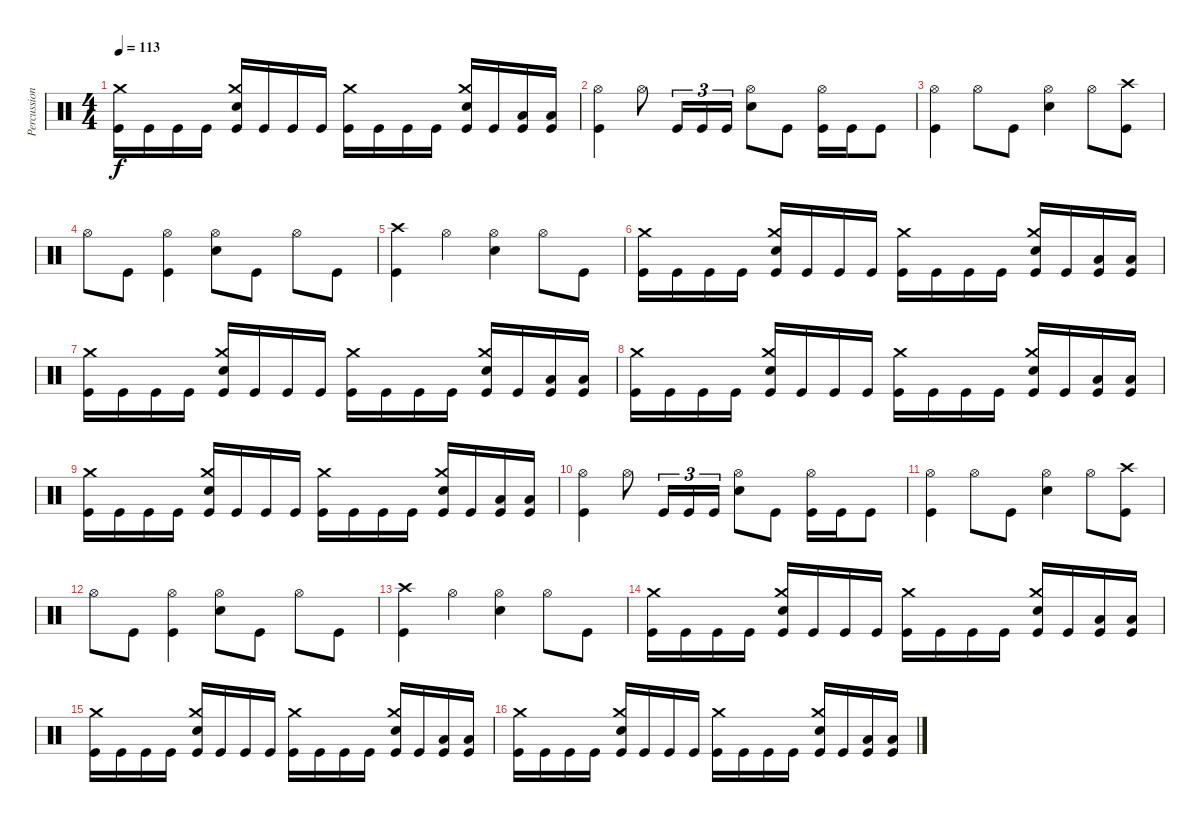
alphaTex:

\track ("Percussion" "Percussion") {instrument percussion}
\staff {score}
\articulation defaults
\ts (4 4)
\tempo 113
\clef neutral
\ks c
("Kick (hit)" "Crash medium (hit)").16{dy f} "Kick (hit)".16 "Kick (hit)".16 "Kick (hit)".16 ("Kick (hit)" "Crash medium (hit)" "Snare (hit) 2").16 "Kick (hit)".16 "Kick (hit)".16 "Kick (hit)".16 ("Kick (hit)" "Crash medium (hit)").16 "Kick (hit)".16 "Kick (hit)".16 "Kick (hit)".16 ("Kick (hit)" "Crash medium (hit)" "Snare (hit) 2").16 "Kick (hit)".16 ("Kick (hit)" "Low Floor Tom (hit)").16 ("Kick (hit)" "Low Floor Tom (hit)").16 |
("Kick (hit)" "Hi-Hat (open)").4 "Hi-Hat (open)".8 "Kick (hit)".16{tu (3 2)} "Kick (hit)".16{tu (3 2)} "Kick (hit)".16{tu (3 2)} ("Hi-Hat (open)" "Snare (hit) 2").8 "Kick (hit)".8 ("Kick (hit)" "Hi-Hat (open)").16 "Kick (hit)".16 "Kick (hit)".8 |
("Kick (hit)" "Hi-Hat (open)").4 "Hi-Hat (open)".8 "Kick (hit)".8 ("Hi-Hat (open)" "Snare (hit) 2").4 "Hi-Hat (open)".8 ("Kick (hit)" "Crash high (hit)").8 |
"Hi-Hat (open)".8 "Kick (hit)".8 ("Kick (hit)" "Hi-Hat (open)").4 ("Hi-Hat (open)" "Snare (hit) 2").8 "Kick (hit)".8 "Hi-Hat (open)".8 "Kick (hit)".8 |
("Kick (hit)" "Crash high (hit)").4 "Hi-Hat (open)".4 ("Hi-Hat (open)" "Snare (hit) 2").4 "Hi-Hat (open)".8 "Kick (hit)".8 |
("Kick (hit)" "Crash medium (hit)").16 "Kick (hit)".16 "Kick (hit)".16 "Kick (hit)".16 ("Kick (hit)" "Crash medium (hit)" "Snare (hit) 2").16 "Kick (hit)".16 "Kick (hit)".16 "Kick (hit)".16 ("Kick (hit)" "Crash medium (hit)").16 "Kick (hit)".16 "Kick (hit)".16 "Kick (hit)".16 ("Kick (hit)" "Crash medium (hit)" "Snare (hit) 2").16 "Kick (hit)".16 ("Kick (hit)" "Low Floor Tom (hit)").16 ("Kick (hit)" "Low Floor Tom (hit)").16 |
("Kick (hit)" "Crash medium (hit)").16 "Kick (hit)".16 "Kick (hit)".16 "Kick (hit)".16 ("Kick (hit)" "Crash medium (hit)" "Snare (hit) 2").16 "Kick (hit)".16 "Kick (hit)".16 "Kick (hit)".16 ("Kick (hit)" "Crash medium (hit)").16 "Kick (hit)".16 "Kick (hit)".16 "Kick (hit)".16 ("Kick (hit)" "Crash medium (hit)" "Snare (hit) 2").16 "Kick (hit)".16 ("Kick (hit)" "Low Floor Tom (hit)").16 ("Kick (hit)" "Low Floor Tom (hit)").16 |
("Kick (hit)" "Crash medium (hit)").16 "Kick (hit)".16 "Kick (hit)".16 "Kick (hit)".16 ("Kick (hit)" "Crash medium (hit)" "Snare (hit) 2").16 "Kick (hit)".16 "Kick (hit)".16 "Kick (hit)".16 ("Kick (hit)" "Crash medium (hit)").16 "Kick (hit)".16 "Kick (hit)".16 "Kick (hit)".16 ("Kick (hit)" "Crash medium (hit)" "Snare (hit) 2").16 "Kick (hit)".16 ("Kick (hit)" "Low Floor Tom (hit)").16 ("Kick (hit)" "Low Floor Tom (hit)").16 |
("Kick (hit)" "Crash medium (hit)").16 "Kick (hit)".16 "Kick (hit)".16 "Kick (hit)".16 ("Kick (hit)" "Crash medium (hit)" "Snare (hit) 2").16 "Kick (hit)".16 "Kick (hit)".16 "Kick (hit)".16 ("Kick (hit)" "Crash medium (hit)").16 "Kick (hit)".16 "Kick (hit)".16 "Kick (hit)".16 ("Kick (hit)" "Crash medium (hit)" "Snare (hit) 2").16 "Kick (hit)".16 ("Kick (hit)" "Low Floor Tom (hit)").16 ("Kick (hit)" "Low Floor Tom (hit)").16 |
("Kick (hit)" "Hi-Hat (open)").4 "Hi-Hat (open)".8 "Kick (hit)".16{tu (3 2)} "Kick (hit)".16{tu (3 2)} "Kick (hit)".16{tu (3 2)} ("Hi-Hat (open)" "Snare (hit) 2").8 "Kick (hit)".8 ("Kick (hit)" "Hi-Hat (open)").16 "Kick (hit)".16 "Kick (hit)".8 |
("Kick (hit)" "Hi-Hat (open)").4 "Hi-Hat (open)".8 "Kick (hit)".8 ("Hi-Hat (open)" "Snare (hit) 2").4 "Hi-Hat (open)".8 ("Kick (hit)" "Crash high (hit)").8 |
"Hi-Hat (open)".8 "Kick (hit)".8 ("Kick (hit)" "Hi-Hat (open)").4 ("Hi-Hat (open)" "Snare (hit) 2").8 "Kick (hit)".8 "Hi-Hat (open)".8 "Kick (hit)".8 |
("Kick (hit)" "Crash high (hit)").4 "Hi-Hat (open)".4 ("Hi-Hat (open)" "Snare (hit) 2").4 "Hi-Hat (open)".8 "Kick (hit)".8 |
("Kick (hit)" "Crash medium (hit)").16 "Kick (hit)".16 "Kick (hit)".16 "Kick (hit)".16 ("Kick (hit)" "Crash medium (hit)" "Snare (hit) 2").16 "Kick (hit)".16 "Kick (hit)".16 "Kick (hit)".16 ("Kick (hit)" "Crash medium (hit)").16 "Kick (hit)".16 "Kick (hit)".16 "Kick (hit)".16 ("Kick (hit)" "Crash medium (hit)" "Snare (hit) 2").16 "Kick (hit)".16 ("Kick (hit)" "Low Floor Tom (hit)").16 ("Kick (hit)" "Low Floor Tom (hit)").16 |
("Kick (hit)" "Crash medium (hit)").16 "Kick (hit)".16 "Kick (hit)".16 "Kick (hit)".16 ("Kick (hit)" "Crash medium (hit)" "Snare (hit) 2").16 "Kick (hit)".16 "Kick (hit)".16 "Kick (hit)".16 ("Kick (hit)" "Crash medium (hit)").16 "Kick (hit)".16 "Kick (hit)".16 "Kick (hit)".16 ("Kick (hit)" "Crash medium (hit)" "Snare (hit) 2").16 "Kick (hit)".16 ("Kick (hit)" "Low Floor Tom (hit)").16 ("Kick (hit)" "Low Floor Tom (hit)").16 |
("Kick (hit)" "Crash medium (hit)").16{volume 0} "Kick (hit)".16 "Kick (hit)".16 "Kick (hit)".16 ("Kick (hit)" "Crash medium (hit)" "Snare (hit) 2").16 "Kick (hit)".16 "Kick (hit)".16 "Kick (hit)".16 ("Kick (hit)" "Crash medium (hit)").16 "Kick (hit)".16 "Kick (hit)".16 "Kick (hit)".16 ("Kick (hit)" "Crash medium (hit)" "Snare (hit) 2").16 "Kick (hit)".16 ("Kick (hit)" "Low Floor Tom (hit)").16 ("Kick (hit)" "Low Floor Tom (hit)").16
